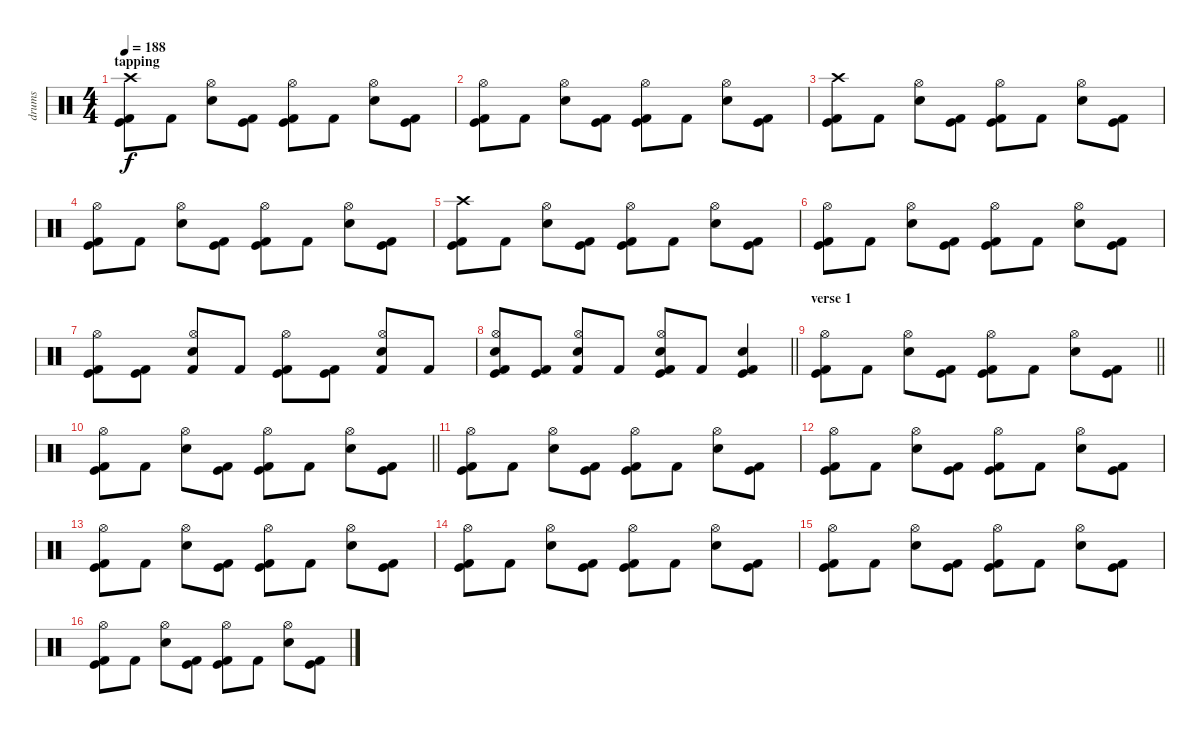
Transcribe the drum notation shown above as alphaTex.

\track ("drums" "drums") {instrument percussion}
\staff {score}
\articulation defaults
\ts (4 4)
\section ("" "tapping")
\tempo 188
\clef neutral
\ks c
("Crash high (hit)" "Kick (hit)" "Kick (hit) 2").8{dy f} "Kick (hit) 2".8 ("Hi-Hat (open)" "Snare (hit) 2").8 ("Kick (hit)" "Kick (hit) 2").8 ("Hi-Hat (open)" "Kick (hit)" "Kick (hit) 2").8 "Kick (hit) 2".8 ("Hi-Hat (open)" "Snare (hit) 2").8 ("Kick (hit)" "Kick (hit) 2").8 |
("Hi-Hat (open)" "Kick (hit)" "Kick (hit) 2").8 "Kick (hit) 2".8 ("Hi-Hat (open)" "Snare (hit) 2").8 ("Kick (hit)" "Kick (hit) 2").8 ("Hi-Hat (open)" "Kick (hit)" "Kick (hit) 2").8 "Kick (hit) 2".8 ("Hi-Hat (open)" "Snare (hit) 2").8 ("Kick (hit)" "Kick (hit) 2").8 |
("Crash high (hit)" "Kick (hit)" "Kick (hit) 2").8 "Kick (hit) 2".8 ("Hi-Hat (open)" "Snare (hit) 2").8 ("Kick (hit)" "Kick (hit) 2").8 ("Hi-Hat (open)" "Kick (hit)" "Kick (hit) 2").8 "Kick (hit) 2".8 ("Hi-Hat (open)" "Snare (hit) 2").8 ("Kick (hit)" "Kick (hit) 2").8 |
("Hi-Hat (open)" "Kick (hit)" "Kick (hit) 2").8 "Kick (hit) 2".8 ("Hi-Hat (open)" "Snare (hit) 2").8 ("Kick (hit)" "Kick (hit) 2").8 ("Hi-Hat (open)" "Kick (hit)" "Kick (hit) 2").8 "Kick (hit) 2".8 ("Hi-Hat (open)" "Snare (hit) 2").8 ("Kick (hit)" "Kick (hit) 2").8 |
("Crash high (hit)" "Kick (hit)" "Kick (hit) 2").8 "Kick (hit) 2".8 ("Hi-Hat (open)" "Snare (hit) 2").8 ("Kick (hit)" "Kick (hit) 2").8 ("Hi-Hat (open)" "Kick (hit)" "Kick (hit) 2").8 "Kick (hit) 2".8 ("Hi-Hat (open)" "Snare (hit) 2").8 ("Kick (hit)" "Kick (hit) 2").8 |
("Hi-Hat (open)" "Kick (hit)" "Kick (hit) 2").8 "Kick (hit) 2".8 ("Hi-Hat (open)" "Snare (hit) 2").8 ("Kick (hit)" "Kick (hit) 2").8 ("Hi-Hat (open)" "Kick (hit)" "Kick (hit) 2").8 "Kick (hit) 2".8 ("Hi-Hat (open)" "Snare (hit) 2").8 ("Kick (hit)" "Kick (hit) 2").8 |
("Hi-Hat (open)" "Kick (hit)" "Kick (hit) 2").8 ("Kick (hit)" "Kick (hit) 2").8 ("Hi-Hat (open)" "Snare (hit) 2" "Kick (hit) 2").8 "Kick (hit) 2".8 ("Hi-Hat (open)" "Kick (hit)" "Kick (hit) 2").8 ("Kick (hit)" "Kick (hit) 2").8 ("Hi-Hat (open)" "Snare (hit) 2" "Kick (hit) 2").8 "Kick (hit) 2".8 |
\barLineRight lightlight
("Hi-Hat (open)" "Electric Snare (hit)" "Kick (hit)" "Kick (hit) 2").8 ("Kick (hit)" "Kick (hit) 2").8 ("Hi-Hat (open)" "Electric Snare (hit)" "Kick (hit) 2").8 "Kick (hit) 2".8 ("Hi-Hat (open)" "Electric Snare (hit)" "Kick (hit)" "Kick (hit) 2").8 "Kick (hit) 2".8 ("Snare (hit) 2" "Kick (hit)" "Kick (hit) 2").4 |
\section ("" "verse 1")
\barLineRight lightlight
("Hi-Hat (open)" "Kick (hit)" "Kick (hit) 2").8 "Kick (hit) 2".8 ("Hi-Hat (open)" "Snare (hit) 2").8 ("Kick (hit)" "Kick (hit) 2").8 ("Hi-Hat (open)" "Kick (hit)" "Kick (hit) 2").8 "Kick (hit) 2".8 ("Hi-Hat (open)" "Snare (hit) 2").8 ("Kick (hit)" "Kick (hit) 2").8 |
\barLineRight lightlight
("Hi-Hat (open)" "Kick (hit)" "Kick (hit) 2").8 "Kick (hit) 2".8 ("Hi-Hat (open)" "Snare (hit) 2").8 ("Kick (hit)" "Kick (hit) 2").8 ("Hi-Hat (open)" "Kick (hit)" "Kick (hit) 2").8 "Kick (hit) 2".8 ("Hi-Hat (open)" "Snare (hit) 2").8 ("Kick (hit)" "Kick (hit) 2").8 |
("Hi-Hat (open)" "Kick (hit)" "Kick (hit) 2").8 "Kick (hit) 2".8 ("Hi-Hat (open)" "Snare (hit) 2").8 ("Kick (hit)" "Kick (hit) 2").8 ("Hi-Hat (open)" "Kick (hit)" "Kick (hit) 2").8 "Kick (hit) 2".8 ("Hi-Hat (open)" "Snare (hit) 2").8 ("Kick (hit)" "Kick (hit) 2").8 |
("Hi-Hat (open)" "Kick (hit)" "Kick (hit) 2").8 "Kick (hit) 2".8 ("Hi-Hat (open)" "Snare (hit) 2").8 ("Kick (hit)" "Kick (hit) 2").8 ("Hi-Hat (open)" "Kick (hit)" "Kick (hit) 2").8 "Kick (hit) 2".8 ("Hi-Hat (open)" "Snare (hit) 2").8 ("Kick (hit)" "Kick (hit) 2").8 |
("Hi-Hat (open)" "Kick (hit)" "Kick (hit) 2").8 "Kick (hit) 2".8 ("Hi-Hat (open)" "Snare (hit) 2").8 ("Kick (hit)" "Kick (hit) 2").8 ("Hi-Hat (open)" "Kick (hit)" "Kick (hit) 2").8 "Kick (hit) 2".8 ("Hi-Hat (open)" "Snare (hit) 2").8 ("Kick (hit)" "Kick (hit) 2").8 |
("Hi-Hat (open)" "Kick (hit)" "Kick (hit) 2").8 "Kick (hit) 2".8 ("Hi-Hat (open)" "Snare (hit) 2").8 ("Kick (hit)" "Kick (hit) 2").8 ("Hi-Hat (open)" "Kick (hit)" "Kick (hit) 2").8 "Kick (hit) 2".8 ("Hi-Hat (open)" "Snare (hit) 2").8 ("Kick (hit)" "Kick (hit) 2").8 |
("Hi-Hat (open)" "Kick (hit)" "Kick (hit) 2").8 "Kick (hit) 2".8 ("Hi-Hat (open)" "Snare (hit) 2").8 ("Kick (hit)" "Kick (hit) 2").8 ("Hi-Hat (open)" "Kick (hit)" "Kick (hit) 2").8 "Kick (hit) 2".8 ("Hi-Hat (open)" "Snare (hit) 2").8 ("Kick (hit)" "Kick (hit) 2").8 |
("Hi-Hat (open)" "Kick (hit)" "Kick (hit) 2").8 "Kick (hit) 2".8 ("Hi-Hat (open)" "Snare (hit) 2").8 ("Kick (hit)" "Kick (hit) 2").8 ("Hi-Hat (open)" "Kick (hit)" "Kick (hit) 2").8 "Kick (hit) 2".8 ("Hi-Hat (open)" "Snare (hit) 2").8 ("Kick (hit)" "Kick (hit) 2").8
